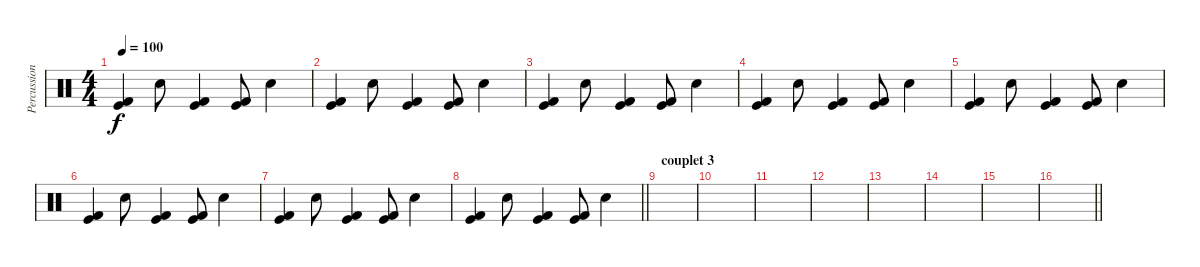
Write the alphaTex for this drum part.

\track ("Percussions" "Percussion") {instrument percussion}
\staff {score}
\articulation defaults
\ts (4 4)
\tempo 100
\clef neutral
\ks c
("Kick (hit)" "Kick (hit) 2").4{dy f} "Electric Snare (hit)".8 ("Kick (hit)" "Kick (hit) 2").4 ("Kick (hit)" "Kick (hit) 2").8 "Snare (hit) 2".4 |
("Kick (hit)" "Kick (hit) 2").4 "Electric Snare (hit)".8 ("Kick (hit)" "Kick (hit) 2").4 ("Kick (hit)" "Kick (hit) 2").8 "Snare (hit) 2".4 |
("Kick (hit)" "Kick (hit) 2").4 "Electric Snare (hit)".8 ("Kick (hit)" "Kick (hit) 2").4 ("Kick (hit)" "Kick (hit) 2").8 "Snare (hit) 2".4 |
("Kick (hit)" "Kick (hit) 2").4 "Electric Snare (hit)".8 ("Kick (hit)" "Kick (hit) 2").4 ("Kick (hit)" "Kick (hit) 2").8 "Snare (hit) 2".4 |
("Kick (hit)" "Kick (hit) 2").4 "Electric Snare (hit)".8 ("Kick (hit)" "Kick (hit) 2").4 ("Kick (hit)" "Kick (hit) 2").8 "Snare (hit) 2".4 |
("Kick (hit)" "Kick (hit) 2").4 "Electric Snare (hit)".8 ("Kick (hit)" "Kick (hit) 2").4 ("Kick (hit)" "Kick (hit) 2").8 "Snare (hit) 2".4 |
("Kick (hit)" "Kick (hit) 2").4 "Electric Snare (hit)".8 ("Kick (hit)" "Kick (hit) 2").4 ("Kick (hit)" "Kick (hit) 2").8 "Snare (hit) 2".4 |
\barLineRight lightlight
("Kick (hit)" "Kick (hit) 2").4 "Electric Snare (hit)".8 ("Kick (hit)" "Kick (hit) 2").4 ("Kick (hit)" "Kick (hit) 2").8 "Snare (hit) 2".4 |
\section ("" "couplet 3")
|
|
|
|
|
|
|
\barLineRight lightlight
